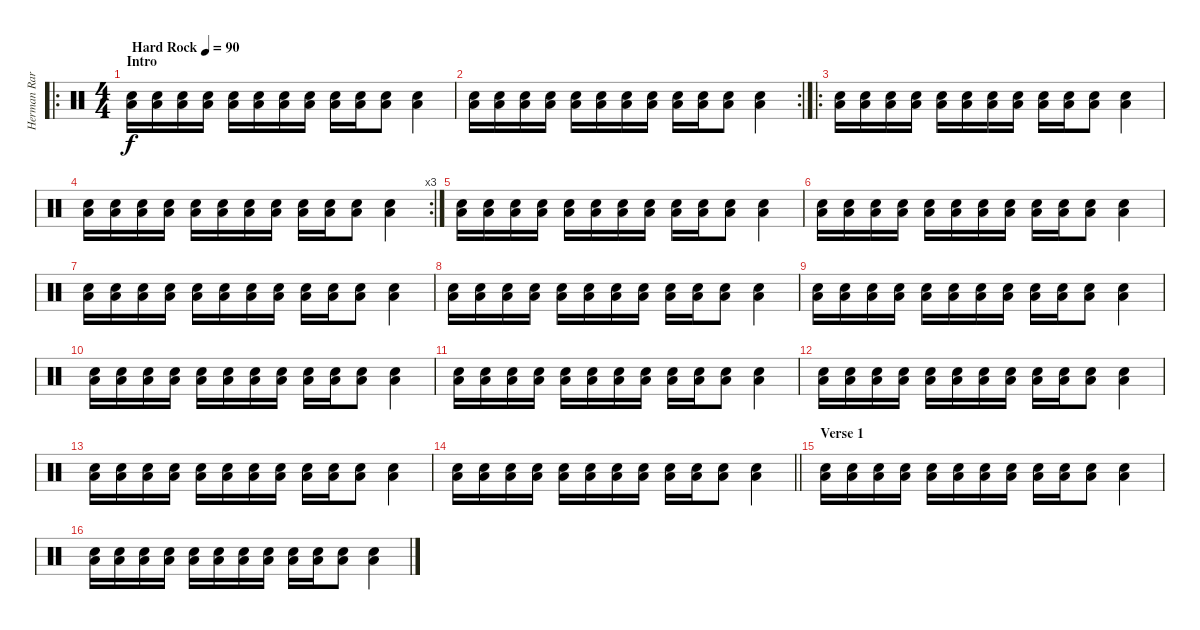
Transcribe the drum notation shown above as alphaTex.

\track ("Herman Rarebell (Drums)" "Herman Rar") {instrument percussion}
\staff {score}
\articulation defaults
\ro
\ts (4 4)
\section ("" "Intro")
\tempo (90 "Hard Rock")
\clef neutral
\ks c
("Electric Snare (hit)" "Low Floor Tom (hit)").16{dy f} ("Electric Snare (hit)" "Low Floor Tom (hit)").16 ("Electric Snare (hit)" "Low Floor Tom (hit)").16 ("Electric Snare (hit)" "Low Floor Tom (hit)").16 ("Electric Snare (hit)" "Low Floor Tom (hit)").16 ("Electric Snare (hit)" "Low Floor Tom (hit)").16 ("Electric Snare (hit)" "Low Floor Tom (hit)").16 ("Electric Snare (hit)" "Low Floor Tom (hit)").16 ("Electric Snare (hit)" "Low Floor Tom (hit)").16 ("Electric Snare (hit)" "Low Floor Tom (hit)").16 ("Electric Snare (hit)" "Low Floor Tom (hit)").8 ("Electric Snare (hit)" "Low Floor Tom (hit)").4{bd 240} |
\rc 2
("Electric Snare (hit)" "Low Floor Tom (hit)").16 ("Electric Snare (hit)" "Low Floor Tom (hit)").16 ("Electric Snare (hit)" "Low Floor Tom (hit)").16 ("Electric Snare (hit)" "Low Floor Tom (hit)").16 ("Electric Snare (hit)" "Low Floor Tom (hit)").16 ("Electric Snare (hit)" "Low Floor Tom (hit)").16 ("Electric Snare (hit)" "Low Floor Tom (hit)").16 ("Electric Snare (hit)" "Low Floor Tom (hit)").16 ("Electric Snare (hit)" "Low Floor Tom (hit)").16 ("Electric Snare (hit)" "Low Floor Tom (hit)").16 ("Electric Snare (hit)" "Low Floor Tom (hit)").8 ("Electric Snare (hit)" "Low Floor Tom (hit)").4{bd 240} |
\ro
("Electric Snare (hit)" "Low Floor Tom (hit)").16 ("Electric Snare (hit)" "Low Floor Tom (hit)").16 ("Electric Snare (hit)" "Low Floor Tom (hit)").16 ("Electric Snare (hit)" "Low Floor Tom (hit)").16 ("Electric Snare (hit)" "Low Floor Tom (hit)").16 ("Electric Snare (hit)" "Low Floor Tom (hit)").16 ("Electric Snare (hit)" "Low Floor Tom (hit)").16 ("Electric Snare (hit)" "Low Floor Tom (hit)").16 ("Electric Snare (hit)" "Low Floor Tom (hit)").16 ("Electric Snare (hit)" "Low Floor Tom (hit)").16 ("Electric Snare (hit)" "Low Floor Tom (hit)").8 ("Electric Snare (hit)" "Low Floor Tom (hit)").4{bd 240} |
\rc 3
("Electric Snare (hit)" "Low Floor Tom (hit)").16 ("Electric Snare (hit)" "Low Floor Tom (hit)").16 ("Electric Snare (hit)" "Low Floor Tom (hit)").16 ("Electric Snare (hit)" "Low Floor Tom (hit)").16 ("Electric Snare (hit)" "Low Floor Tom (hit)").16 ("Electric Snare (hit)" "Low Floor Tom (hit)").16 ("Electric Snare (hit)" "Low Floor Tom (hit)").16 ("Electric Snare (hit)" "Low Floor Tom (hit)").16 ("Electric Snare (hit)" "Low Floor Tom (hit)").16 ("Electric Snare (hit)" "Low Floor Tom (hit)").16 ("Electric Snare (hit)" "Low Floor Tom (hit)").8 ("Electric Snare (hit)" "Low Floor Tom (hit)").4{bd 240} |
("Electric Snare (hit)" "Low Floor Tom (hit)").16 ("Electric Snare (hit)" "Low Floor Tom (hit)").16 ("Electric Snare (hit)" "Low Floor Tom (hit)").16 ("Electric Snare (hit)" "Low Floor Tom (hit)").16 ("Electric Snare (hit)" "Low Floor Tom (hit)").16 ("Electric Snare (hit)" "Low Floor Tom (hit)").16 ("Electric Snare (hit)" "Low Floor Tom (hit)").16 ("Electric Snare (hit)" "Low Floor Tom (hit)").16 ("Electric Snare (hit)" "Low Floor Tom (hit)").16 ("Electric Snare (hit)" "Low Floor Tom (hit)").16 ("Electric Snare (hit)" "Low Floor Tom (hit)").8 ("Electric Snare (hit)" "Low Floor Tom (hit)").4{bd 240} |
("Electric Snare (hit)" "Low Floor Tom (hit)").16 ("Electric Snare (hit)" "Low Floor Tom (hit)").16 ("Electric Snare (hit)" "Low Floor Tom (hit)").16 ("Electric Snare (hit)" "Low Floor Tom (hit)").16 ("Electric Snare (hit)" "Low Floor Tom (hit)").16 ("Electric Snare (hit)" "Low Floor Tom (hit)").16 ("Electric Snare (hit)" "Low Floor Tom (hit)").16 ("Electric Snare (hit)" "Low Floor Tom (hit)").16 ("Electric Snare (hit)" "Low Floor Tom (hit)").16 ("Electric Snare (hit)" "Low Floor Tom (hit)").16 ("Electric Snare (hit)" "Low Floor Tom (hit)").8 ("Electric Snare (hit)" "Low Floor Tom (hit)").4{bd 240} |
("Electric Snare (hit)" "Low Floor Tom (hit)").16 ("Electric Snare (hit)" "Low Floor Tom (hit)").16 ("Electric Snare (hit)" "Low Floor Tom (hit)").16 ("Electric Snare (hit)" "Low Floor Tom (hit)").16 ("Electric Snare (hit)" "Low Floor Tom (hit)").16 ("Electric Snare (hit)" "Low Floor Tom (hit)").16 ("Electric Snare (hit)" "Low Floor Tom (hit)").16 ("Electric Snare (hit)" "Low Floor Tom (hit)").16 ("Electric Snare (hit)" "Low Floor Tom (hit)").16 ("Electric Snare (hit)" "Low Floor Tom (hit)").16 ("Electric Snare (hit)" "Low Floor Tom (hit)").8 ("Electric Snare (hit)" "Low Floor Tom (hit)").4{bd 240} |
("Electric Snare (hit)" "Low Floor Tom (hit)").16 ("Electric Snare (hit)" "Low Floor Tom (hit)").16 ("Electric Snare (hit)" "Low Floor Tom (hit)").16 ("Electric Snare (hit)" "Low Floor Tom (hit)").16 ("Electric Snare (hit)" "Low Floor Tom (hit)").16 ("Electric Snare (hit)" "Low Floor Tom (hit)").16 ("Electric Snare (hit)" "Low Floor Tom (hit)").16 ("Electric Snare (hit)" "Low Floor Tom (hit)").16 ("Electric Snare (hit)" "Low Floor Tom (hit)").16 ("Electric Snare (hit)" "Low Floor Tom (hit)").16 ("Electric Snare (hit)" "Low Floor Tom (hit)").8 ("Electric Snare (hit)" "Low Floor Tom (hit)").4{bd 240} |
("Electric Snare (hit)" "Low Floor Tom (hit)").16 ("Electric Snare (hit)" "Low Floor Tom (hit)").16 ("Electric Snare (hit)" "Low Floor Tom (hit)").16 ("Electric Snare (hit)" "Low Floor Tom (hit)").16 ("Electric Snare (hit)" "Low Floor Tom (hit)").16 ("Electric Snare (hit)" "Low Floor Tom (hit)").16 ("Electric Snare (hit)" "Low Floor Tom (hit)").16 ("Electric Snare (hit)" "Low Floor Tom (hit)").16 ("Electric Snare (hit)" "Low Floor Tom (hit)").16 ("Electric Snare (hit)" "Low Floor Tom (hit)").16 ("Electric Snare (hit)" "Low Floor Tom (hit)").8 ("Electric Snare (hit)" "Low Floor Tom (hit)").4{bd 240} |
("Electric Snare (hit)" "Low Floor Tom (hit)").16 ("Electric Snare (hit)" "Low Floor Tom (hit)").16 ("Electric Snare (hit)" "Low Floor Tom (hit)").16 ("Electric Snare (hit)" "Low Floor Tom (hit)").16 ("Electric Snare (hit)" "Low Floor Tom (hit)").16 ("Electric Snare (hit)" "Low Floor Tom (hit)").16 ("Electric Snare (hit)" "Low Floor Tom (hit)").16 ("Electric Snare (hit)" "Low Floor Tom (hit)").16 ("Electric Snare (hit)" "Low Floor Tom (hit)").16 ("Electric Snare (hit)" "Low Floor Tom (hit)").16 ("Electric Snare (hit)" "Low Floor Tom (hit)").8 ("Electric Snare (hit)" "Low Floor Tom (hit)").4{bd 240} |
("Electric Snare (hit)" "Low Floor Tom (hit)").16 ("Electric Snare (hit)" "Low Floor Tom (hit)").16 ("Electric Snare (hit)" "Low Floor Tom (hit)").16 ("Electric Snare (hit)" "Low Floor Tom (hit)").16 ("Electric Snare (hit)" "Low Floor Tom (hit)").16 ("Electric Snare (hit)" "Low Floor Tom (hit)").16 ("Electric Snare (hit)" "Low Floor Tom (hit)").16 ("Electric Snare (hit)" "Low Floor Tom (hit)").16 ("Electric Snare (hit)" "Low Floor Tom (hit)").16 ("Electric Snare (hit)" "Low Floor Tom (hit)").16 ("Electric Snare (hit)" "Low Floor Tom (hit)").8 ("Electric Snare (hit)" "Low Floor Tom (hit)").4{bd 240} |
("Electric Snare (hit)" "Low Floor Tom (hit)").16 ("Electric Snare (hit)" "Low Floor Tom (hit)").16 ("Electric Snare (hit)" "Low Floor Tom (hit)").16 ("Electric Snare (hit)" "Low Floor Tom (hit)").16 ("Electric Snare (hit)" "Low Floor Tom (hit)").16 ("Electric Snare (hit)" "Low Floor Tom (hit)").16 ("Electric Snare (hit)" "Low Floor Tom (hit)").16 ("Electric Snare (hit)" "Low Floor Tom (hit)").16 ("Electric Snare (hit)" "Low Floor Tom (hit)").16 ("Electric Snare (hit)" "Low Floor Tom (hit)").16 ("Electric Snare (hit)" "Low Floor Tom (hit)").8 ("Electric Snare (hit)" "Low Floor Tom (hit)").4{bd 240} |
("Electric Snare (hit)" "Low Floor Tom (hit)").16 ("Electric Snare (hit)" "Low Floor Tom (hit)").16 ("Electric Snare (hit)" "Low Floor Tom (hit)").16 ("Electric Snare (hit)" "Low Floor Tom (hit)").16 ("Electric Snare (hit)" "Low Floor Tom (hit)").16 ("Electric Snare (hit)" "Low Floor Tom (hit)").16 ("Electric Snare (hit)" "Low Floor Tom (hit)").16 ("Electric Snare (hit)" "Low Floor Tom (hit)").16 ("Electric Snare (hit)" "Low Floor Tom (hit)").16 ("Electric Snare (hit)" "Low Floor Tom (hit)").16 ("Electric Snare (hit)" "Low Floor Tom (hit)").8 ("Electric Snare (hit)" "Low Floor Tom (hit)").4{bd 240} |
\barLineRight lightlight
("Electric Snare (hit)" "Low Floor Tom (hit)").16 ("Electric Snare (hit)" "Low Floor Tom (hit)").16 ("Electric Snare (hit)" "Low Floor Tom (hit)").16 ("Electric Snare (hit)" "Low Floor Tom (hit)").16 ("Electric Snare (hit)" "Low Floor Tom (hit)").16 ("Electric Snare (hit)" "Low Floor Tom (hit)").16 ("Electric Snare (hit)" "Low Floor Tom (hit)").16 ("Electric Snare (hit)" "Low Floor Tom (hit)").16 ("Electric Snare (hit)" "Low Floor Tom (hit)").16 ("Electric Snare (hit)" "Low Floor Tom (hit)").16 ("Electric Snare (hit)" "Low Floor Tom (hit)").8 ("Electric Snare (hit)" "Low Floor Tom (hit)").4{bd 240} |
\section ("" "Verse 1")
("Electric Snare (hit)" "Low Floor Tom (hit)").16 ("Electric Snare (hit)" "Low Floor Tom (hit)").16 ("Electric Snare (hit)" "Low Floor Tom (hit)").16 ("Electric Snare (hit)" "Low Floor Tom (hit)").16 ("Electric Snare (hit)" "Low Floor Tom (hit)").16 ("Electric Snare (hit)" "Low Floor Tom (hit)").16 ("Electric Snare (hit)" "Low Floor Tom (hit)").16 ("Electric Snare (hit)" "Low Floor Tom (hit)").16 ("Electric Snare (hit)" "Low Floor Tom (hit)").16 ("Electric Snare (hit)" "Low Floor Tom (hit)").16 ("Electric Snare (hit)" "Low Floor Tom (hit)").8 ("Electric Snare (hit)" "Low Floor Tom (hit)").4{bd 240} |
("Electric Snare (hit)" "Low Floor Tom (hit)").16 ("Electric Snare (hit)" "Low Floor Tom (hit)").16 ("Electric Snare (hit)" "Low Floor Tom (hit)").16 ("Electric Snare (hit)" "Low Floor Tom (hit)").16 ("Electric Snare (hit)" "Low Floor Tom (hit)").16 ("Electric Snare (hit)" "Low Floor Tom (hit)").16 ("Electric Snare (hit)" "Low Floor Tom (hit)").16 ("Electric Snare (hit)" "Low Floor Tom (hit)").16 ("Electric Snare (hit)" "Low Floor Tom (hit)").16 ("Electric Snare (hit)" "Low Floor Tom (hit)").16 ("Electric Snare (hit)" "Low Floor Tom (hit)").8 ("Electric Snare (hit)" "Low Floor Tom (hit)").4{bd 240}
